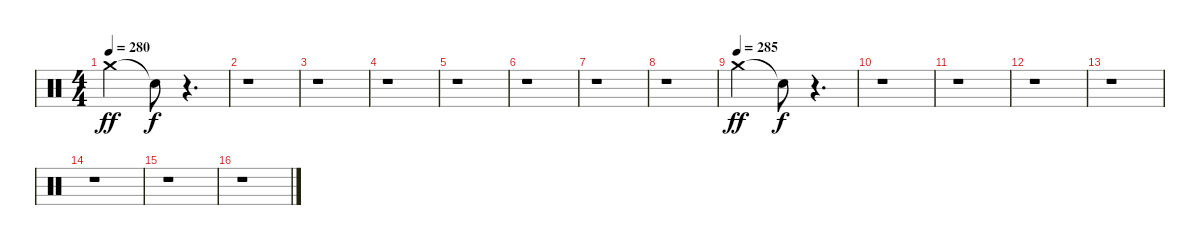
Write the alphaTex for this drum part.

\track "" {instrument percussion}
\staff {score}
\articulation defaults
\ts (4 4)
\tempo 280
\clef neutral
\ks c "Crash medium (hit)".2{dy ff} "Snare (hit)"{t}.8{dy f}
r.4{d} |
r.1 |
r.1 |
r.1 |
r.1 |
r.1 |
r.1 |
r.1 |
\tempo (285)
"Crash medium (hit)".2{dy ff} "Snare (hit)"{t}.8{dy f} r.4{d} |
r.1 |
r.1 |
r.1 |
r.1 |
r.1 |
r.1 |
r.1
